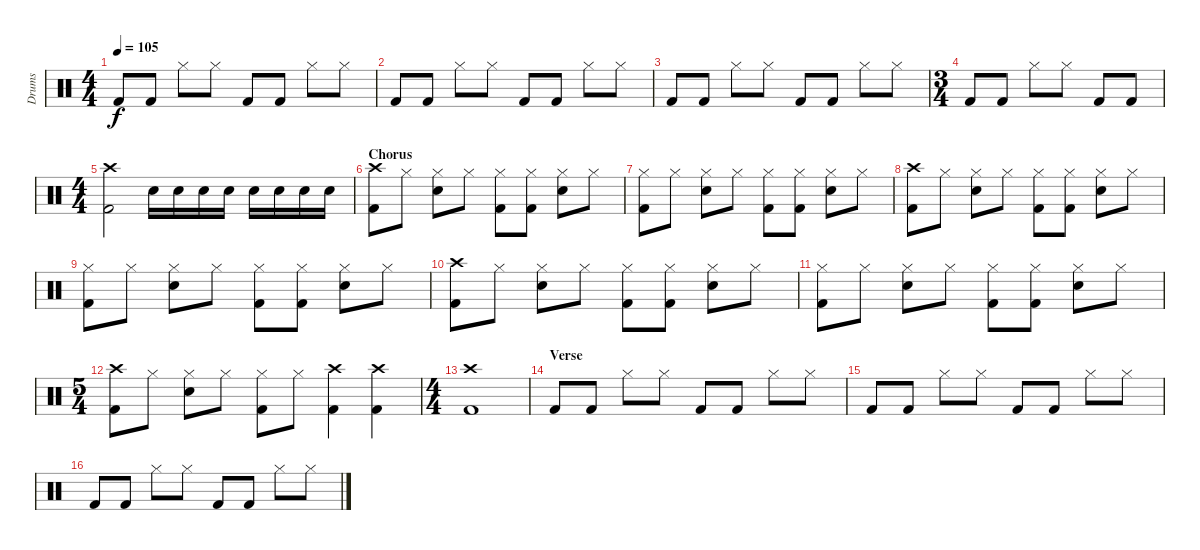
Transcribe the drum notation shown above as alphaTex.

\track ("Drums" "Drums") {instrument percussion}
\staff {score}
\articulation defaults
\ts (4 4)
\tempo 105
\clef neutral
\ks c "Kick (hit) 2".8{dy f} "Kick (hit) 2".8 "Hi-Hat (closed)".8 "Hi-Hat (closed)".8 "Kick (hit) 2".8 "Kick (hit) 2".8 "Hi-Hat (closed)".8 "Hi-Hat (closed)".8
|
"Kick (hit) 2".8 "Kick (hit) 2".8 "Hi-Hat (closed)".8 "Hi-Hat (closed)".8 "Kick (hit) 2".8 "Kick (hit) 2".8 "Hi-Hat (closed)".8 "Hi-Hat (closed)".8 |
"Kick (hit) 2".8 "Kick (hit) 2".8 "Hi-Hat (closed)".8 "Hi-Hat (closed)".8 "Kick (hit) 2".8 "Kick (hit) 2".8 "Hi-Hat (closed)".8 "Hi-Hat (closed)".8 |
\ts (3 4)
"Kick (hit) 2".8 "Kick (hit) 2".8 "Hi-Hat (closed)".8 "Hi-Hat (closed)".8 "Kick (hit) 2".8 "Kick (hit) 2".8 |
\ts (4 4)
("Crash high (hit)" "Kick (hit) 2").2 "Snare (hit) 2".16 "Snare (hit) 2".16 "Snare (hit) 2".16 "Snare (hit) 2".16 "Snare (hit) 2".16 "Snare (hit) 2".16 "Snare (hit) 2".16 "Snare (hit) 2".16 |
\section ("" "Chorus")
("Crash high (hit)" "Kick (hit) 2").8 "Hi-Hat (closed)".8 ("Hi-Hat (closed)" "Snare (hit) 2").8 "Hi-Hat (closed)".8 ("Hi-Hat (closed)" "Kick (hit) 2").8 ("Hi-Hat (closed)" "Kick (hit) 2").8 ("Hi-Hat (closed)" "Snare (hit) 2").8 "Hi-Hat (closed)".8 |
("Hi-Hat (closed)" "Kick (hit) 2").8 "Hi-Hat (closed)".8 ("Hi-Hat (closed)" "Snare (hit) 2").8 "Hi-Hat (closed)".8 ("Hi-Hat (closed)" "Kick (hit) 2").8 ("Hi-Hat (closed)" "Kick (hit) 2").8 ("Hi-Hat (closed)" "Snare (hit) 2").8 "Hi-Hat (closed)".8 |
("Crash high (hit)" "Kick (hit) 2").8 "Hi-Hat (closed)".8 ("Hi-Hat (closed)" "Snare (hit) 2").8 "Hi-Hat (closed)".8 ("Hi-Hat (closed)" "Kick (hit) 2").8 ("Hi-Hat (closed)" "Kick (hit) 2").8 ("Hi-Hat (closed)" "Snare (hit) 2").8 "Hi-Hat (closed)".8 |
("Hi-Hat (closed)" "Kick (hit) 2").8 "Hi-Hat (closed)".8 ("Hi-Hat (closed)" "Snare (hit) 2").8 "Hi-Hat (closed)".8 ("Hi-Hat (closed)" "Kick (hit) 2").8 ("Hi-Hat (closed)" "Kick (hit) 2").8 ("Hi-Hat (closed)" "Snare (hit) 2").8 "Hi-Hat (closed)".8 |
("Crash high (hit)" "Kick (hit) 2").8 "Hi-Hat (closed)".8 ("Hi-Hat (closed)" "Snare (hit) 2").8 "Hi-Hat (closed)".8 ("Hi-Hat (closed)" "Kick (hit) 2").8 ("Hi-Hat (closed)" "Kick (hit) 2").8 ("Hi-Hat (closed)" "Snare (hit) 2").8 "Hi-Hat (closed)".8 |
("Hi-Hat (closed)" "Kick (hit) 2").8 "Hi-Hat (closed)".8 ("Hi-Hat (closed)" "Snare (hit) 2").8 "Hi-Hat (closed)".8 ("Hi-Hat (closed)" "Kick (hit) 2").8 ("Hi-Hat (closed)" "Kick (hit) 2").8 ("Hi-Hat (closed)" "Snare (hit) 2").8 "Hi-Hat (closed)".8 |
\ts (5 4)
("Crash high (hit)" "Kick (hit) 2").8 "Hi-Hat (closed)".8 ("Hi-Hat (closed)" "Snare (hit) 2").8 "Hi-Hat (closed)".8 ("Hi-Hat (closed)" "Kick (hit) 2").8 "Hi-Hat (closed)".8 ("Crash high (hit)" "Kick (hit) 2").4 ("Crash high (hit)" "Kick (hit) 2").4 |
\ts (4 4)
("Crash high (hit)" "Kick (hit) 2").1 |
\section ("" "Verse")
"Kick (hit) 2".8 "Kick (hit) 2".8 "Hi-Hat (closed)".8 "Hi-Hat (closed)".8 "Kick (hit) 2".8 "Kick (hit) 2".8 "Hi-Hat (closed)".8 "Hi-Hat (closed)".8 |
"Kick (hit) 2".8 "Kick (hit) 2".8 "Hi-Hat (closed)".8 "Hi-Hat (closed)".8 "Kick (hit) 2".8 "Kick (hit) 2".8 "Hi-Hat (closed)".8 "Hi-Hat (closed)".8 |
"Kick (hit) 2".8 "Kick (hit) 2".8 "Hi-Hat (closed)".8 "Hi-Hat (closed)".8 "Kick (hit) 2".8 "Kick (hit) 2".8 "Hi-Hat (closed)".8 "Hi-Hat (closed)".8
